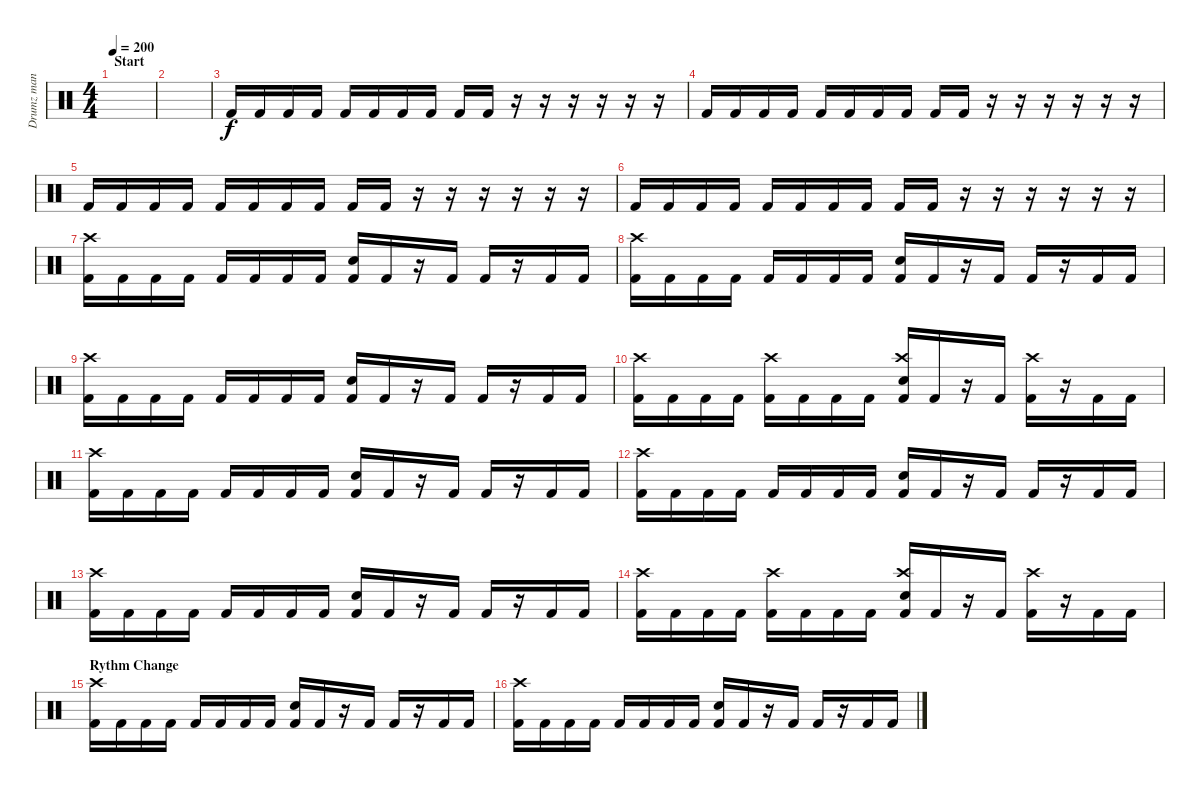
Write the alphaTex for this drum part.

\track ("Drumz man" "Drumz man") {instrument percussion}
\staff {score}
\articulation defaults
\ts (4 4)
\section ("" "Start")
\tempo 200
\clef neutral
\ks c
|
|
"Kick (hit) 2".16 "Kick (hit) 2".16 "Kick (hit) 2".16 "Kick (hit) 2".16 "Kick (hit) 2".16 "Kick (hit) 2".16 "Kick (hit) 2".16 "Kick (hit) 2".16 "Kick (hit) 2".16 "Kick (hit) 2".16 r.16 r.16 r.16 r.16 r.16 r.16 |
"Kick (hit) 2".16 "Kick (hit) 2".16 "Kick (hit) 2".16 "Kick (hit) 2".16 "Kick (hit) 2".16 "Kick (hit) 2".16 "Kick (hit) 2".16 "Kick (hit) 2".16 "Kick (hit) 2".16 "Kick (hit) 2".16 r.16 r.16 r.16 r.16 r.16 r.16 |
"Kick (hit) 2".16 "Kick (hit) 2".16 "Kick (hit) 2".16 "Kick (hit) 2".16 "Kick (hit) 2".16 "Kick (hit) 2".16 "Kick (hit) 2".16 "Kick (hit) 2".16 "Kick (hit) 2".16 "Kick (hit) 2".16 r.16 r.16 r.16 r.16 r.16 r.16 |
"Kick (hit) 2".16 "Kick (hit) 2".16 "Kick (hit) 2".16 "Kick (hit) 2".16 "Kick (hit) 2".16 "Kick (hit) 2".16 "Kick (hit) 2".16 "Kick (hit) 2".16 "Kick (hit) 2".16 "Kick (hit) 2".16 r.16 r.16 r.16 r.16 r.16 r.16 |
("Kick (hit) 2" "Crash high (hit)").16 "Kick (hit) 2".16 "Kick (hit) 2".16 "Kick (hit) 2".16 "Kick (hit) 2".16 "Kick (hit) 2".16 "Kick (hit) 2".16 "Kick (hit) 2".16 ("Kick (hit) 2" "Snare (hit) 2").16 "Kick (hit) 2".16 r.16 "Kick (hit) 2".16 "Kick (hit) 2".16 r.16 "Kick (hit) 2".16 "Kick (hit) 2".16 |
("Kick (hit) 2" "Crash high (hit)").16 "Kick (hit) 2".16 "Kick (hit) 2".16 "Kick (hit) 2".16 "Kick (hit) 2".16 "Kick (hit) 2".16 "Kick (hit) 2".16 "Kick (hit) 2".16 ("Kick (hit) 2" "Snare (hit) 2").16 "Kick (hit) 2".16 r.16 "Kick (hit) 2".16 "Kick (hit) 2".16 r.16 "Kick (hit) 2".16 "Kick (hit) 2".16 |
("Kick (hit) 2" "Crash high (hit)").16 "Kick (hit) 2".16 "Kick (hit) 2".16 "Kick (hit) 2".16 "Kick (hit) 2".16 "Kick (hit) 2".16 "Kick (hit) 2".16 "Kick (hit) 2".16 ("Kick (hit) 2" "Snare (hit) 2").16 "Kick (hit) 2".16 r.16 "Kick (hit) 2".16 "Kick (hit) 2".16 r.16 "Kick (hit) 2".16 "Kick (hit) 2".16 |
("Kick (hit) 2" "Crash high (hit)").16 "Kick (hit) 2".16 "Kick (hit) 2".16 "Kick (hit) 2".16 ("Kick (hit) 2" "Crash high (hit)").16 "Kick (hit) 2".16 "Kick (hit) 2".16 "Kick (hit) 2".16 ("Kick (hit) 2" "Snare (hit) 2" "Crash high (hit)").16 "Kick (hit) 2".16 r.16 "Kick (hit) 2".16 ("Kick (hit) 2" "Crash high (hit)").16 r.16 "Kick (hit) 2".16 "Kick (hit) 2".16 |
("Kick (hit) 2" "Crash high (hit)").16 "Kick (hit) 2".16 "Kick (hit) 2".16 "Kick (hit) 2".16 "Kick (hit) 2".16 "Kick (hit) 2".16 "Kick (hit) 2".16 "Kick (hit) 2".16 ("Kick (hit) 2" "Snare (hit) 2").16 "Kick (hit) 2".16 r.16 "Kick (hit) 2".16 "Kick (hit) 2".16 r.16 "Kick (hit) 2".16 "Kick (hit) 2".16 |
("Kick (hit) 2" "Crash high (hit)").16 "Kick (hit) 2".16 "Kick (hit) 2".16 "Kick (hit) 2".16 "Kick (hit) 2".16 "Kick (hit) 2".16 "Kick (hit) 2".16 "Kick (hit) 2".16 ("Kick (hit) 2" "Snare (hit) 2").16 "Kick (hit) 2".16 r.16 "Kick (hit) 2".16 "Kick (hit) 2".16 r.16 "Kick (hit) 2".16 "Kick (hit) 2".16 |
("Kick (hit) 2" "Crash high (hit)").16 "Kick (hit) 2".16 "Kick (hit) 2".16 "Kick (hit) 2".16 "Kick (hit) 2".16 "Kick (hit) 2".16 "Kick (hit) 2".16 "Kick (hit) 2".16 ("Kick (hit) 2" "Snare (hit) 2").16 "Kick (hit) 2".16 r.16 "Kick (hit) 2".16 "Kick (hit) 2".16 r.16 "Kick (hit) 2".16 "Kick (hit) 2".16 |
("Kick (hit) 2" "Crash high (hit)").16 "Kick (hit) 2".16 "Kick (hit) 2".16 "Kick (hit) 2".16 ("Kick (hit) 2" "Crash high (hit)").16 "Kick (hit) 2".16 "Kick (hit) 2".16 "Kick (hit) 2".16 ("Kick (hit) 2" "Snare (hit) 2" "Crash high (hit)").16 "Kick (hit) 2".16 r.16 "Kick (hit) 2".16 ("Kick (hit) 2" "Crash high (hit)").16 r.16 "Kick (hit) 2".16 "Kick (hit) 2".16 |
\section ("" "Rythm Change")
("Kick (hit) 2" "Crash high (hit)").16 "Kick (hit) 2".16 "Kick (hit) 2".16 "Kick (hit) 2".16 "Kick (hit) 2".16 "Kick (hit) 2".16 "Kick (hit) 2".16 "Kick (hit) 2".16 ("Kick (hit) 2" "Snare (hit) 2").16 "Kick (hit) 2".16 r.16 "Kick (hit) 2".16 "Kick (hit) 2".16 r.16 "Kick (hit) 2".16 "Kick (hit) 2".16 |
("Kick (hit) 2" "Crash high (hit)").16 "Kick (hit) 2".16 "Kick (hit) 2".16 "Kick (hit) 2".16 "Kick (hit) 2".16 "Kick (hit) 2".16 "Kick (hit) 2".16 "Kick (hit) 2".16 ("Kick (hit) 2" "Snare (hit) 2").16 "Kick (hit) 2".16 r.16 "Kick (hit) 2".16 "Kick (hit) 2".16 r.16 "Kick (hit) 2".16 "Kick (hit) 2".16
